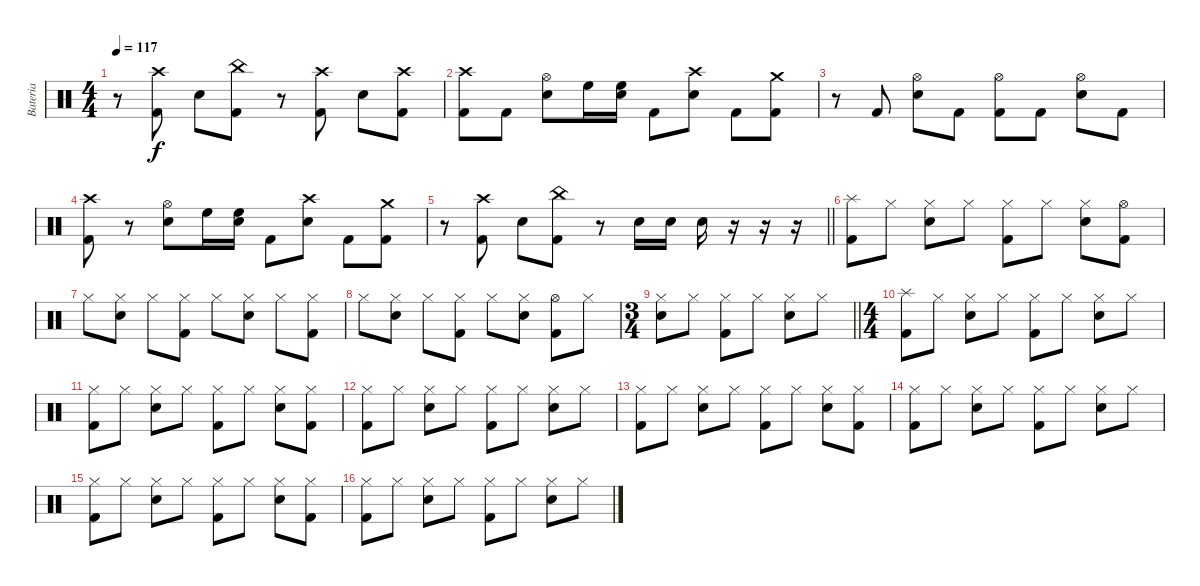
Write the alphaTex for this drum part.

\track ("Bateria" "Bateria") {instrument percussion}
\staff
\articulation defaults
\ts (4 4)
\tempo 117
\clef neutral
\ks c
r.8{dy f} ("Crash high (hit)" "Kick (hit) 2").8 "Snare (hit) 2".8 ("China (hit)" "Kick (hit) 2").8 r.8 ("Crash high (hit)" "Kick (hit) 2").8 "Snare (hit) 2".8 ("Crash high (hit)" "Kick (hit) 2").8 |
("Crash high (hit)" "Kick (hit) 2").8 "Kick (hit) 2".8 ("Hi-Hat (open)" "Snare (hit) 2").8 "High Floor Tom (hit)".16 ("High Floor Tom (hit)" "Snare (hit) 2").16 "Kick (hit) 2".8 ("Crash high (hit)" "Snare (hit) 2").8 "Kick (hit) 2".8 ("Crash medium (hit)" "Kick (hit) 2").8 |
r.8 "Kick (hit) 2".8 ("Hi-Hat (open)" "Snare (hit) 2").8 "Kick (hit) 2".8 ("Hi-Hat (open)" "Kick (hit) 2").8 "Kick (hit) 2".8 ("Hi-Hat (open)" "Snare (hit) 2").8 "Kick (hit) 2".8 |
("Crash high (hit)" "Kick (hit) 2").8 r.8 ("Hi-Hat (open)" "Snare (hit) 2").8 "High Floor Tom (hit)".16 ("High Floor Tom (hit)" "Snare (hit) 2").16 "Kick (hit) 2".8 ("Crash high (hit)" "Snare (hit) 2").8 "Kick (hit) 2".8 ("Crash medium (hit)" "Kick (hit) 2").8 |
\barLineRight lightlight
r.8 ("Crash high (hit)" "Kick (hit) 2").8 "Snare (hit) 2".8 ("China (hit)" "Kick (hit) 2").8 r.8 "Snare (hit) 2".16 "Snare (hit) 2".16 "Snare (hit) 2".16 r.16 r.16 r.16 |
("Splash (hit)" "Kick (hit) 2").8 "Hi-Hat (closed)".8 ("Hi-Hat (closed)" "Snare (hit) 2").8 "Hi-Hat (closed)".8 ("Hi-Hat (closed)" "Kick (hit) 2").8 "Hi-Hat (closed)".8 ("Hi-Hat (closed)" "Snare (hit) 2").8 ("Hi-Hat (open)" "Kick (hit) 2").8 |
"Hi-Hat (closed)".8 ("Hi-Hat (closed)" "Snare (hit) 2").8 "Hi-Hat (closed)".8 ("Hi-Hat (closed)" "Kick (hit) 2").8 "Hi-Hat (closed)".8 ("Hi-Hat (closed)" "Snare (hit) 2").8 "Hi-Hat (closed)".8 ("Hi-Hat (closed)" "Kick (hit) 2").8 |
"Hi-Hat (closed)".8 ("Hi-Hat (closed)" "Snare (hit) 2").8 "Hi-Hat (closed)".8 ("Hi-Hat (closed)" "Kick (hit) 2").8 "Hi-Hat (closed)".8 ("Hi-Hat (closed)" "Snare (hit) 2").8 ("Hi-Hat (open)" "Kick (hit) 2").8 "Hi-Hat (closed)".8 |
\ts (3 4)
\barLineRight lightlight
("Hi-Hat (closed)" "Snare (hit) 2").8 "Hi-Hat (closed)".8 ("Hi-Hat (closed)" "Kick (hit) 2").8 "Hi-Hat (closed)".8 ("Hi-Hat (closed)" "Snare (hit) 2").8 "Hi-Hat (closed)".8 |
\ts (4 4)
("Splash (hit)" "Kick (hit) 2").8 "Hi-Hat (closed)".8 ("Hi-Hat (closed)" "Snare (hit) 2").8 "Hi-Hat (closed)".8 ("Hi-Hat (closed)" "Kick (hit) 2").8 "Hi-Hat (closed)".8 ("Hi-Hat (closed)" "Snare (hit) 2").8 "Hi-Hat (closed)".8 |
("Hi-Hat (closed)" "Kick (hit) 2").8 "Hi-Hat (closed)".8 ("Hi-Hat (closed)" "Snare (hit) 2").8 "Hi-Hat (closed)".8 ("Hi-Hat (closed)" "Kick (hit) 2").8 "Hi-Hat (closed)".8 ("Hi-Hat (closed)" "Snare (hit) 2").8 ("Hi-Hat (closed)" "Kick (hit) 2").8 |
("Hi-Hat (closed)" "Kick (hit) 2").8 "Hi-Hat (closed)".8 ("Hi-Hat (closed)" "Snare (hit) 2").8 "Hi-Hat (closed)".8 ("Hi-Hat (closed)" "Kick (hit) 2").8 "Hi-Hat (closed)".8 ("Hi-Hat (closed)" "Snare (hit) 2").8 "Hi-Hat (closed)".8 |
("Hi-Hat (closed)" "Kick (hit) 2").8 "Hi-Hat (closed)".8 ("Hi-Hat (closed)" "Snare (hit) 2").8 "Hi-Hat (closed)".8 ("Hi-Hat (closed)" "Kick (hit) 2").8 "Hi-Hat (closed)".8 ("Hi-Hat (closed)" "Snare (hit) 2").8 ("Hi-Hat (closed)" "Kick (hit) 2").8 |
("Hi-Hat (closed)" "Kick (hit) 2").8 "Hi-Hat (closed)".8 ("Hi-Hat (closed)" "Snare (hit) 2").8 "Hi-Hat (closed)".8 ("Hi-Hat (closed)" "Kick (hit) 2").8 "Hi-Hat (closed)".8 ("Hi-Hat (closed)" "Snare (hit) 2").8 "Hi-Hat (closed)".8 |
("Hi-Hat (closed)" "Kick (hit) 2").8 "Hi-Hat (closed)".8 ("Hi-Hat (closed)" "Snare (hit) 2").8 "Hi-Hat (closed)".8 ("Hi-Hat (closed)" "Kick (hit) 2").8 "Hi-Hat (closed)".8 ("Hi-Hat (closed)" "Snare (hit) 2").8 ("Hi-Hat (closed)" "Kick (hit) 2").8 |
("Hi-Hat (closed)" "Kick (hit) 2").8 "Hi-Hat (closed)".8 ("Hi-Hat (closed)" "Snare (hit) 2").8 "Hi-Hat (closed)".8 ("Hi-Hat (closed)" "Kick (hit) 2").8 "Hi-Hat (closed)".8 ("Hi-Hat (closed)" "Snare (hit) 2").8 "Hi-Hat (closed)".8
